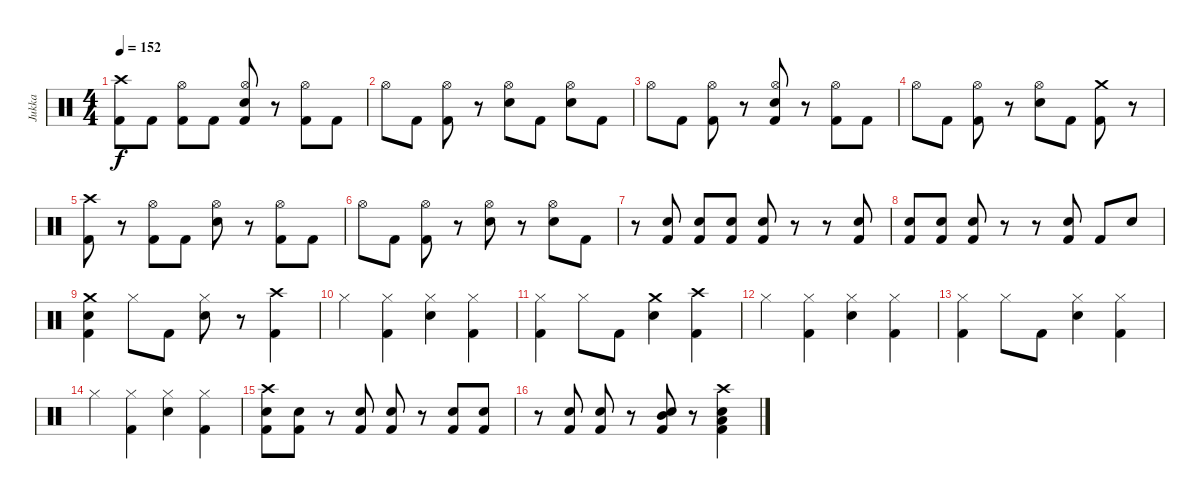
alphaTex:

\track ("Jukka" "Jukka") {instrument percussion}
\staff {score}
\articulation defaults
\ts (4 4)
\tempo 152
\clef neutral
\ks c
("Crash high (hit)" "Kick (hit) 2").8{dy f} "Kick (hit) 2".8 ("Hi-Hat (open)" "Kick (hit) 2").8 "Kick (hit) 2".8 ("Hi-Hat (open)" "Electric Snare (hit)" "Kick (hit) 2").8 r.8 ("Hi-Hat (open)" "Kick (hit) 2").8 "Kick (hit) 2".8 |
"Hi-Hat (open)".8 "Kick (hit) 2".8 ("Hi-Hat (open)" "Kick (hit) 2").8 r.8 ("Hi-Hat (open)" "Electric Snare (hit)").8 "Kick (hit) 2".8 ("Hi-Hat (open)" "Electric Snare (hit)").8 "Kick (hit) 2".8 |
"Hi-Hat (open)".8 "Kick (hit) 2".8 ("Hi-Hat (open)" "Kick (hit) 2").8 r.8 ("Hi-Hat (open)" "Electric Snare (hit)" "Kick (hit) 2").8 r.8 ("Hi-Hat (open)" "Kick (hit) 2").8 "Kick (hit) 2".8 |
"Hi-Hat (open)".8 "Kick (hit) 2".8 ("Hi-Hat (open)" "Kick (hit) 2").8 r.8 ("Hi-Hat (open)" "Electric Snare (hit)").8 "Kick (hit) 2".8 ("Crash medium (hit)" "Kick (hit) 2").8 r.8 |
("Crash high (hit)" "Kick (hit) 2").8 r.8 ("Hi-Hat (open)" "Kick (hit) 2").8 "Kick (hit) 2".8 ("Hi-Hat (open)" "Electric Snare (hit)").8 r.8 ("Hi-Hat (open)" "Kick (hit) 2").8 "Kick (hit) 2".8 |
"Hi-Hat (open)".8 "Kick (hit) 2".8 ("Hi-Hat (open)" "Kick (hit) 2").8 r.8 ("Hi-Hat (open)" "Electric Snare (hit)").8 r.8 ("Hi-Hat (open)" "Electric Snare (hit)").8 "Kick (hit) 2".8 |
r.8 ("Electric Snare (hit)" "Kick (hit) 2").8 ("Electric Snare (hit)" "Kick (hit) 2").8 ("Electric Snare (hit)" "Kick (hit) 2").8 ("Electric Snare (hit)" "Kick (hit) 2").8 r.8 r.8 ("Electric Snare (hit)" "Kick (hit) 2").8 |
("Electric Snare (hit)" "Kick (hit) 2").8 ("Electric Snare (hit)" "Kick (hit) 2").8 ("Electric Snare (hit)" "Kick (hit) 2").8 r.8 r.8 ("Electric Snare (hit)" "Kick (hit) 2").8 "Kick (hit) 2".8 "Electric Snare (hit)".8 |
("Crash medium (hit)" "Electric Snare (hit)" "Kick (hit) 2").4 "Hi-Hat (closed)".8 "Kick (hit) 2".8 ("Hi-Hat (closed)" "Electric Snare (hit)").8 r.8 ("Crash high (hit)" "Kick (hit) 2").4 |
"Hi-Hat (closed)".4 ("Hi-Hat (closed)" "Kick (hit) 2").4 ("Hi-Hat (closed)" "Electric Snare (hit)").4 ("Hi-Hat (closed)" "Kick (hit) 2").4 |
("Hi-Hat (closed)" "Kick (hit) 2").4 "Hi-Hat (closed)".8 "Kick (hit) 2".8 ("Crash medium (hit)" "Electric Snare (hit)").4 ("Crash high (hit)" "Kick (hit) 2").4 |
"Hi-Hat (closed)".4 ("Hi-Hat (closed)" "Kick (hit) 2").4 ("Hi-Hat (closed)" "Electric Snare (hit)").4 ("Hi-Hat (closed)" "Kick (hit) 2").4 |
("Hi-Hat (closed)" "Kick (hit) 2").4 "Hi-Hat (closed)".8 "Kick (hit) 2".8 ("Hi-Hat (closed)" "Electric Snare (hit)").4 ("Hi-Hat (closed)" "Kick (hit) 2").4 |
"Hi-Hat (closed)".4 ("Hi-Hat (closed)" "Kick (hit) 2").4 ("Hi-Hat (closed)" "Electric Snare (hit)").4 ("Hi-Hat (closed)" "Kick (hit) 2").4 |
("Crash high (hit)" "Electric Snare (hit)" "Kick (hit) 2").8 ("Electric Snare (hit)" "Kick (hit) 2").8 r.8 ("Electric Snare (hit)" "Kick (hit) 2").8 ("Electric Snare (hit)" "Kick (hit) 2").8 r.8 ("Electric Snare (hit)" "Kick (hit) 2").8 ("Electric Snare (hit)" "Kick (hit) 2").8 |
r.8 ("Electric Snare (hit)" "Kick (hit) 2").8 ("Electric Snare (hit)" "Kick (hit) 2").8 r.8 ("Electric Snare (hit)" "Mid Tom (hit)" "Kick (hit) 2").8 r.8 ("Crash high (hit)" "Electric Snare (hit)" "Low Tom (hit)" "Kick (hit) 2").4
